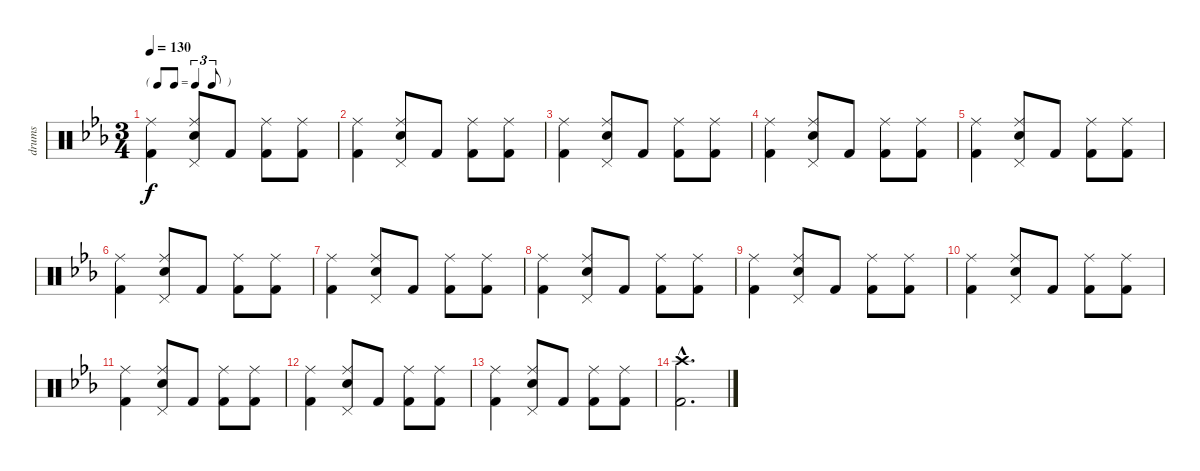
\track ("drums" "drums") {instrument percussion}
\staff {score}
\articulation defaults
\ts (3 4)
\tf triplet8th
\tempo 130
\clef neutral
\ks cminor
("Ride (middle)" "Kick (hit) 2").4{dy f} ("Ride (middle)" "Snare (hit) 2" "Pedal Hi-Hat (hit)").8 "Kick (hit) 2".8 ("Ride (middle)" "Kick (hit) 2").8 ("Ride (middle)" "Kick (hit) 2").8 |
("Ride (middle)" "Kick (hit) 2").4 ("Ride (middle)" "Snare (hit) 2" "Pedal Hi-Hat (hit)").8 "Kick (hit) 2".8 ("Ride (middle)" "Kick (hit) 2").8 ("Ride (middle)" "Kick (hit) 2").8 |
("Ride (middle)" "Kick (hit) 2").4 ("Ride (middle)" "Snare (hit) 2" "Pedal Hi-Hat (hit)").8 "Kick (hit) 2".8 ("Ride (middle)" "Kick (hit) 2").8 ("Ride (middle)" "Kick (hit) 2").8 |
("Ride (middle)" "Kick (hit) 2").4 ("Ride (middle)" "Snare (hit) 2" "Pedal Hi-Hat (hit)").8 "Kick (hit) 2".8 ("Ride (middle)" "Kick (hit) 2").8 ("Ride (middle)" "Kick (hit) 2").8 |
("Ride (middle)" "Kick (hit) 2").4 ("Ride (middle)" "Snare (hit) 2" "Pedal Hi-Hat (hit)").8 "Kick (hit) 2".8 ("Ride (middle)" "Kick (hit) 2").8 ("Ride (middle)" "Kick (hit) 2").8 |
("Ride (middle)" "Kick (hit) 2").4 ("Ride (middle)" "Snare (hit) 2" "Pedal Hi-Hat (hit)").8 "Kick (hit) 2".8 ("Ride (middle)" "Kick (hit) 2").8 ("Ride (middle)" "Kick (hit) 2").8 |
("Ride (middle)" "Kick (hit) 2").4 ("Ride (middle)" "Snare (hit) 2" "Pedal Hi-Hat (hit)").8 "Kick (hit) 2".8 ("Ride (middle)" "Kick (hit) 2").8 ("Ride (middle)" "Kick (hit) 2").8 |
("Ride (middle)" "Kick (hit) 2").4 ("Ride (middle)" "Snare (hit) 2" "Pedal Hi-Hat (hit)").8 "Kick (hit) 2".8 ("Ride (middle)" "Kick (hit) 2").8 ("Ride (middle)" "Kick (hit) 2").8 |
("Ride (middle)" "Kick (hit) 2").4 ("Ride (middle)" "Snare (hit) 2" "Pedal Hi-Hat (hit)").8 "Kick (hit) 2".8 ("Ride (middle)" "Kick (hit) 2").8 ("Ride (middle)" "Kick (hit) 2").8 |
("Ride (middle)" "Kick (hit) 2").4 ("Ride (middle)" "Snare (hit) 2" "Pedal Hi-Hat (hit)").8 "Kick (hit) 2".8 ("Ride (middle)" "Kick (hit) 2").8 ("Ride (middle)" "Kick (hit) 2").8 |
("Ride (middle)" "Kick (hit) 2").4 ("Ride (middle)" "Snare (hit) 2" "Pedal Hi-Hat (hit)").8 "Kick (hit) 2".8 ("Ride (middle)" "Kick (hit) 2").8 ("Ride (middle)" "Kick (hit) 2").8 |
("Ride (middle)" "Kick (hit) 2").4 ("Ride (middle)" "Snare (hit) 2" "Pedal Hi-Hat (hit)").8 "Kick (hit) 2".8 ("Ride (middle)" "Kick (hit) 2").8 ("Ride (middle)" "Kick (hit) 2").8 |
("Ride (middle)" "Kick (hit) 2").4 ("Ride (middle)" "Snare (hit) 2" "Pedal Hi-Hat (hit)").8 "Kick (hit) 2".8 ("Ride (middle)" "Kick (hit) 2").8 ("Ride (middle)" "Kick (hit) 2").8 |
("Crash high (hit)"{hac} "Kick (hit) 2"{hac}).2{d}
